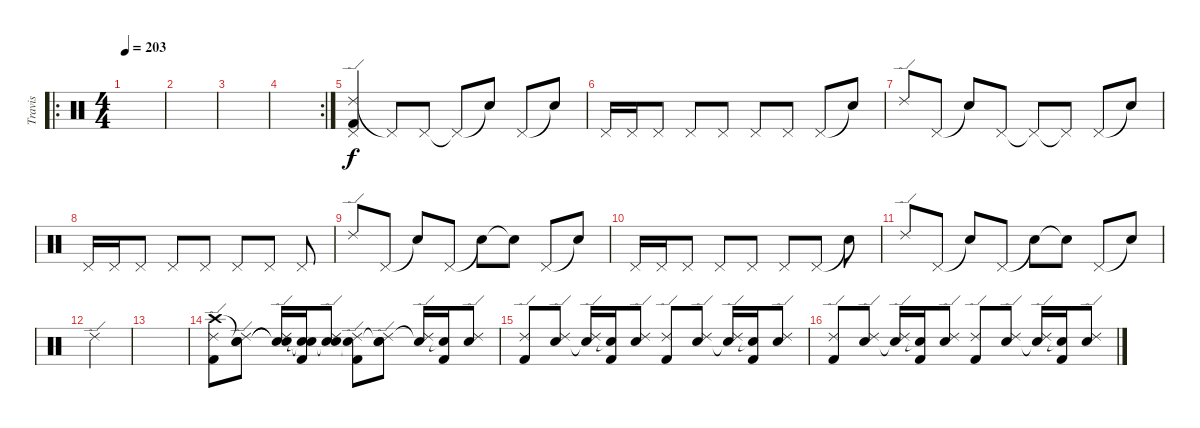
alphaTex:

\track ("Travis" "Travis") {instrument percussion}
\staff {score}
\articulation defaults
\ro
\ts (4 4)
\tempo 203
\clef neutral
\ks c
|
|
|
\rc 2
|
("Ride (edge) 2" "Pedal Hi-Hat (hit)" "Kick (hit) 2").4 "Pedal Hi-Hat (hit)"{t}.8 "Pedal Hi-Hat (hit)".8 "Pedal Hi-Hat (hit)"{t}.8 "Snare (hit)"{t}.8 "Pedal Hi-Hat (hit)".8 "Snare (hit)"{t}.8 |
"Pedal Hi-Hat (hit)".16 "Pedal Hi-Hat (hit)".16 "Pedal Hi-Hat (hit)".8 "Pedal Hi-Hat (hit)".8 "Pedal Hi-Hat (hit)".8 "Pedal Hi-Hat (hit)".8 "Pedal Hi-Hat (hit)".8 "Pedal Hi-Hat (hit)".8 "Snare (hit)"{t}.8 |
"Ride (edge) 2".8 "Pedal Hi-Hat (hit)".8 "Snare (hit)"{t}.8 "Pedal Hi-Hat (hit)".8 "Pedal Hi-Hat (hit)"{t}.8 "Pedal Hi-Hat (hit)"{t}.8 "Pedal Hi-Hat (hit)".8 "Snare (hit)"{t}.8 |
"Pedal Hi-Hat (hit)".16 "Pedal Hi-Hat (hit)".16 "Pedal Hi-Hat (hit)".8 "Pedal Hi-Hat (hit)".8 "Pedal Hi-Hat (hit)".8 "Pedal Hi-Hat (hit)".8 "Pedal Hi-Hat (hit)".8 "Pedal Hi-Hat (hit)".8 |
"Ride (edge) 2".8 "Pedal Hi-Hat (hit)".8 "Snare (hit)"{t}.8 "Pedal Hi-Hat (hit)".8 "Snare (hit)"{t}.8 "Snare (hit)"{t}.8 "Pedal Hi-Hat (hit)".8 "Snare (hit)"{t}.8 |
"Pedal Hi-Hat (hit)".16 "Pedal Hi-Hat (hit)".16 "Pedal Hi-Hat (hit)".8 "Pedal Hi-Hat (hit)".8 "Pedal Hi-Hat (hit)".8 "Pedal Hi-Hat (hit)".8 "Pedal Hi-Hat (hit)".8 "Snare (hit)"{t}.8 |
"Ride (edge) 2".8 "Pedal Hi-Hat (hit)".8 "Snare (hit)"{t}.8 "Pedal Hi-Hat (hit)".8 "Snare (hit)"{t}.8 "Snare (hit)"{t}.8 "Pedal Hi-Hat (hit)".8 "Snare (hit)"{t}.8 |
"Ride (edge) 2".4 |
|
("Crash high (hit)" "Ride (edge) 2" "Kick (hit) 2").8 ("Snare (hit)"{t} "Ride (edge) 2" "Electric Snare (hit)").8 ("Snare (hit)"{t} "Ride (edge) 2" "Snare (hit)"{t}).16 ("Snare (hit)"{t} "Snare (hit)"{t} "Kick (hit) 2").16 ("Snare (hit)"{t} "Ride (edge) 2" "Electric Snare (hit)").8 ("Snare (hit)"{t} "Ride (edge) 2" "Kick (hit) 2").8 ("Snare (hit)"{t} "Ride (edge) 2" "Electric Snare (hit)").8 ("Ride (edge) 2" "Snare (hit)"{t}).16 ("Snare (hit)"{t} "Kick (hit) 2").16 ("Ride (edge) 2" "Electric Snare (hit)").8 |
("Ride (edge) 2" "Kick (hit) 2").8 ("Ride (edge) 2" "Electric Snare (hit)").8 ("Ride (edge) 2" "Snare (hit)"{t}).16 ("Snare (hit)"{t} "Kick (hit) 2").16 ("Ride (edge) 2" "Electric Snare (hit)").8 ("Ride (edge) 2" "Kick (hit) 2").8 ("Ride (edge) 2" "Electric Snare (hit)").8 ("Ride (edge) 2" "Snare (hit)"{t}).16 ("Snare (hit)"{t} "Kick (hit) 2").16 ("Ride (edge) 2" "Electric Snare (hit)").8 |
("Ride (edge) 2" "Kick (hit) 2").8 ("Ride (edge) 2" "Electric Snare (hit)").8 ("Ride (edge) 2" "Snare (hit)"{t}).16 ("Snare (hit)"{t} "Kick (hit) 2").16 ("Ride (edge) 2" "Electric Snare (hit)").8 ("Ride (edge) 2" "Kick (hit) 2").8 ("Ride (edge) 2" "Electric Snare (hit)").8 ("Ride (edge) 2" "Snare (hit)"{t}).16 ("Snare (hit)"{t} "Kick (hit) 2").16 ("Ride (edge) 2" "Electric Snare (hit)").8
